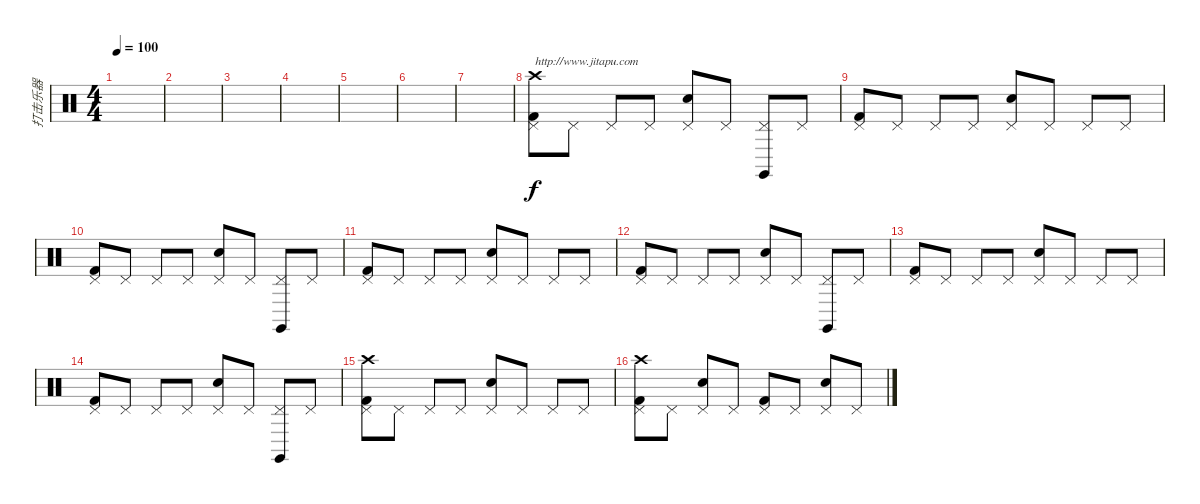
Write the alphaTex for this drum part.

\track ("打击乐器" "打击乐器") {instrument percussion}
\staff {score}
\articulation defaults
\ts (4 4)
\tempo 100
\clef neutral
\ks c
|
|
|
|
|
|
|
("Pedal Hi-Hat (hit)" "Kick (hit) 2" "Crash high (hit)").8{txt "http://www.jitapu.com"} "Pedal Hi-Hat (hit)".8 "Pedal Hi-Hat (hit)".8 "Pedal Hi-Hat (hit)".8 ("Pedal Hi-Hat (hit)" "Snare (hit) 2").8 "Pedal Hi-Hat (hit)".8 ("Pedal Hi-Hat (hit)" "Claves (hit)").8 "Pedal Hi-Hat (hit)".8 |
("Pedal Hi-Hat (hit)" "Kick (hit) 2").8 "Pedal Hi-Hat (hit)".8 "Pedal Hi-Hat (hit)".8 "Pedal Hi-Hat (hit)".8 ("Pedal Hi-Hat (hit)" "Snare (hit) 2").8 "Pedal Hi-Hat (hit)".8 "Pedal Hi-Hat (hit)".8 "Pedal Hi-Hat (hit)".8 |
("Pedal Hi-Hat (hit)" "Kick (hit) 2").8 "Pedal Hi-Hat (hit)".8 "Pedal Hi-Hat (hit)".8 "Pedal Hi-Hat (hit)".8 ("Pedal Hi-Hat (hit)" "Snare (hit) 2").8 "Pedal Hi-Hat (hit)".8 ("Pedal Hi-Hat (hit)" "Claves (hit)").8 "Pedal Hi-Hat (hit)".8 |
("Pedal Hi-Hat (hit)" "Kick (hit) 2").8 "Pedal Hi-Hat (hit)".8 "Pedal Hi-Hat (hit)".8 "Pedal Hi-Hat (hit)".8 ("Pedal Hi-Hat (hit)" "Snare (hit) 2").8 "Pedal Hi-Hat (hit)".8 "Pedal Hi-Hat (hit)".8 "Pedal Hi-Hat (hit)".8 |
("Pedal Hi-Hat (hit)" "Kick (hit) 2").8 "Pedal Hi-Hat (hit)".8 "Pedal Hi-Hat (hit)".8 "Pedal Hi-Hat (hit)".8 ("Pedal Hi-Hat (hit)" "Snare (hit) 2").8 "Pedal Hi-Hat (hit)".8 ("Pedal Hi-Hat (hit)" "Claves (hit)").8 "Pedal Hi-Hat (hit)".8 |
("Pedal Hi-Hat (hit)" "Kick (hit) 2").8 "Pedal Hi-Hat (hit)".8 "Pedal Hi-Hat (hit)".8 "Pedal Hi-Hat (hit)".8 ("Pedal Hi-Hat (hit)" "Snare (hit) 2").8 "Pedal Hi-Hat (hit)".8 "Pedal Hi-Hat (hit)".8 "Pedal Hi-Hat (hit)".8 |
("Pedal Hi-Hat (hit)" "Kick (hit) 2").8 "Pedal Hi-Hat (hit)".8 "Pedal Hi-Hat (hit)".8 "Pedal Hi-Hat (hit)".8 ("Pedal Hi-Hat (hit)" "Snare (hit) 2").8 "Pedal Hi-Hat (hit)".8 ("Pedal Hi-Hat (hit)" "Claves (hit)").8 "Pedal Hi-Hat (hit)".8 |
("Pedal Hi-Hat (hit)" "Kick (hit) 2" "Crash high (hit)").8 "Pedal Hi-Hat (hit)".8 "Pedal Hi-Hat (hit)".8 "Pedal Hi-Hat (hit)".8 ("Pedal Hi-Hat (hit)" "Snare (hit) 2").8 "Pedal Hi-Hat (hit)".8 "Pedal Hi-Hat (hit)".8 "Pedal Hi-Hat (hit)".8 |
("Pedal Hi-Hat (hit)" "Kick (hit) 2" "Crash high (hit)").8 "Pedal Hi-Hat (hit)".8 ("Pedal Hi-Hat (hit)" "Snare (hit) 2").8 "Pedal Hi-Hat (hit)".8 ("Pedal Hi-Hat (hit)" "Kick (hit) 2").8 "Pedal Hi-Hat (hit)".8 ("Pedal Hi-Hat (hit)" "Snare (hit) 2").8 "Pedal Hi-Hat (hit)".8
